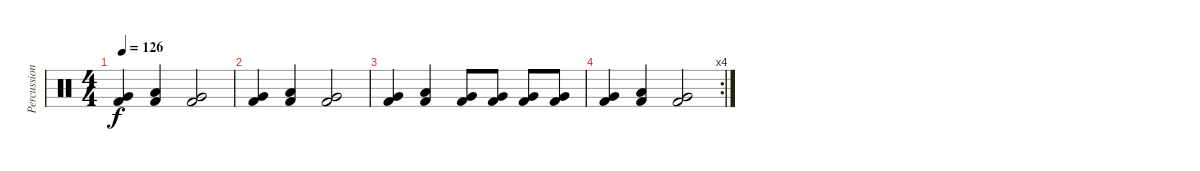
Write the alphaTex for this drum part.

\track ("Percussion" "Percussion") {instrument percussion}
\staff {score}
\articulation defaults
\ts (4 4)
\tempo 126
\clef neutral
\ks c
("Very Low Tom (hit)" "Kick (hit) 2").4{dy f} ("Low Floor Tom (hit)" "Kick (hit) 2").4 ("Very Low Tom (hit)" "Kick (hit) 2").2 |
("Very Low Tom (hit)" "Kick (hit) 2").4 ("Low Floor Tom (hit)" "Kick (hit) 2").4 ("Very Low Tom (hit)" "Kick (hit) 2").2 |
("Very Low Tom (hit)" "Kick (hit) 2").4 ("Low Floor Tom (hit)" "Kick (hit) 2").4 ("Very Low Tom (hit)" "Kick (hit) 2").8 ("Very Low Tom (hit)" "Kick (hit) 2").8 ("Very Low Tom (hit)" "Kick (hit) 2").8 ("Very Low Tom (hit)" "Kick (hit) 2").8 |
\rc 4
("Very Low Tom (hit)" "Kick (hit) 2").4 ("Low Floor Tom (hit)" "Kick (hit) 2").4 ("Very Low Tom (hit)" "Kick (hit) 2").2
